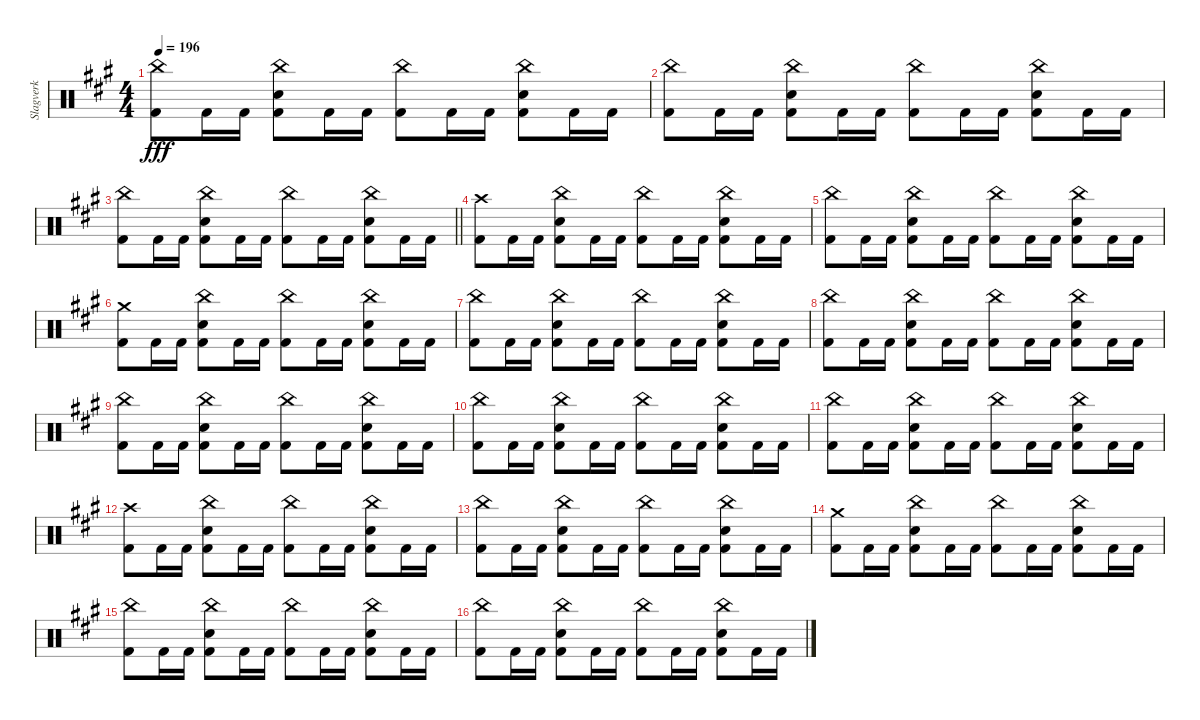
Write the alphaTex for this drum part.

\track ("Slagverk" "Slagverk") {instrument percussion}
\staff {score}
\articulation defaults
\ts (4 4)
\tempo 196
\clef neutral
\ks a
("China (hit)" "Kick (hit) 2").8{dy fff} "Kick (hit) 2".16 "Kick (hit) 2".16 ("China (hit)" "Snare (hit) 2" "Kick (hit) 2").8 "Kick (hit) 2".16 "Kick (hit) 2".16 ("China (hit)" "Kick (hit) 2").8 "Kick (hit) 2".16 "Kick (hit) 2".16 ("China (hit)" "Snare (hit) 2" "Kick (hit) 2").8 "Kick (hit) 2".16 "Kick (hit) 2".16 |
("China (hit)" "Kick (hit) 2").8 "Kick (hit) 2".16 "Kick (hit) 2".16 ("China (hit)" "Snare (hit) 2" "Kick (hit) 2").8 "Kick (hit) 2".16 "Kick (hit) 2".16 ("China (hit)" "Kick (hit) 2").8 "Kick (hit) 2".16 "Kick (hit) 2".16 ("China (hit)" "Snare (hit) 2" "Kick (hit) 2").8 "Kick (hit) 2".16 "Kick (hit) 2".16 |
\barLineRight lightlight
("China (hit)" "Kick (hit) 2").8 "Kick (hit) 2".16 "Kick (hit) 2".16 ("China (hit)" "Snare (hit) 2" "Kick (hit) 2").8 "Kick (hit) 2".16 "Kick (hit) 2".16 ("China (hit)" "Kick (hit) 2").8 "Kick (hit) 2".16 "Kick (hit) 2".16 ("China (hit)" "Snare (hit) 2" "Kick (hit) 2").8 "Kick (hit) 2".16 "Kick (hit) 2".16 |
("Crash high (hit)" "Kick (hit) 2").8 "Kick (hit) 2".16 "Kick (hit) 2".16 ("China (hit)" "Snare (hit) 2" "Kick (hit) 2").8 "Kick (hit) 2".16 "Kick (hit) 2".16 ("China (hit)" "Kick (hit) 2").8 "Kick (hit) 2".16 "Kick (hit) 2".16 ("China (hit)" "Snare (hit) 2" "Kick (hit) 2").8 "Kick (hit) 2".16 "Kick (hit) 2".16 |
("China (hit)" "Kick (hit) 2").8 "Kick (hit) 2".16 "Kick (hit) 2".16 ("China (hit)" "Snare (hit) 2" "Kick (hit) 2").8 "Kick (hit) 2".16 "Kick (hit) 2".16 ("China (hit)" "Kick (hit) 2").8 "Kick (hit) 2".16 "Kick (hit) 2".16 ("China (hit)" "Snare (hit) 2" "Kick (hit) 2").8 "Kick (hit) 2".16 "Kick (hit) 2".16 |
("Crash medium (hit)" "Kick (hit) 2").8 "Kick (hit) 2".16 "Kick (hit) 2".16 ("China (hit)" "Snare (hit) 2" "Kick (hit) 2").8 "Kick (hit) 2".16 "Kick (hit) 2".16 ("China (hit)" "Kick (hit) 2").8 "Kick (hit) 2".16 "Kick (hit) 2".16 ("China (hit)" "Snare (hit) 2" "Kick (hit) 2").8 "Kick (hit) 2".16 "Kick (hit) 2".16 |
("China (hit)" "Kick (hit) 2").8 "Kick (hit) 2".16 "Kick (hit) 2".16 ("China (hit)" "Snare (hit) 2" "Kick (hit) 2").8 "Kick (hit) 2".16 "Kick (hit) 2".16 ("China (hit)" "Kick (hit) 2").8 "Kick (hit) 2".16 "Kick (hit) 2".16 ("China (hit)" "Snare (hit) 2" "Kick (hit) 2").8 "Kick (hit) 2".16 "Kick (hit) 2".16 |
("China (hit)" "Kick (hit) 2").8 "Kick (hit) 2".16 "Kick (hit) 2".16 ("China (hit)" "Snare (hit) 2" "Kick (hit) 2").8 "Kick (hit) 2".16 "Kick (hit) 2".16 ("China (hit)" "Kick (hit) 2").8 "Kick (hit) 2".16 "Kick (hit) 2".16 ("China (hit)" "Snare (hit) 2" "Kick (hit) 2").8 "Kick (hit) 2".16 "Kick (hit) 2".16 |
("China (hit)" "Kick (hit) 2").8 "Kick (hit) 2".16 "Kick (hit) 2".16 ("China (hit)" "Snare (hit) 2" "Kick (hit) 2").8 "Kick (hit) 2".16 "Kick (hit) 2".16 ("China (hit)" "Kick (hit) 2").8 "Kick (hit) 2".16 "Kick (hit) 2".16 ("China (hit)" "Snare (hit) 2" "Kick (hit) 2").8 "Kick (hit) 2".16 "Kick (hit) 2".16 |
("China (hit)" "Kick (hit) 2").8 "Kick (hit) 2".16 "Kick (hit) 2".16 ("China (hit)" "Snare (hit) 2" "Kick (hit) 2").8 "Kick (hit) 2".16 "Kick (hit) 2".16 ("China (hit)" "Kick (hit) 2").8 "Kick (hit) 2".16 "Kick (hit) 2".16 ("China (hit)" "Snare (hit) 2" "Kick (hit) 2").8 "Kick (hit) 2".16 "Kick (hit) 2".16 |
("China (hit)" "Kick (hit) 2").8 "Kick (hit) 2".16 "Kick (hit) 2".16 ("China (hit)" "Snare (hit) 2" "Kick (hit) 2").8 "Kick (hit) 2".16 "Kick (hit) 2".16 ("China (hit)" "Kick (hit) 2").8 "Kick (hit) 2".16 "Kick (hit) 2".16 ("China (hit)" "Snare (hit) 2" "Kick (hit) 2").8 "Kick (hit) 2".16 "Kick (hit) 2".16 |
("Crash high (hit)" "Kick (hit) 2").8 "Kick (hit) 2".16 "Kick (hit) 2".16 ("China (hit)" "Snare (hit) 2" "Kick (hit) 2").8 "Kick (hit) 2".16 "Kick (hit) 2".16 ("China (hit)" "Kick (hit) 2").8 "Kick (hit) 2".16 "Kick (hit) 2".16 ("China (hit)" "Snare (hit) 2" "Kick (hit) 2").8 "Kick (hit) 2".16 "Kick (hit) 2".16 |
("China (hit)" "Kick (hit) 2").8 "Kick (hit) 2".16 "Kick (hit) 2".16 ("China (hit)" "Snare (hit) 2" "Kick (hit) 2").8 "Kick (hit) 2".16 "Kick (hit) 2".16 ("China (hit)" "Kick (hit) 2").8 "Kick (hit) 2".16 "Kick (hit) 2".16 ("China (hit)" "Snare (hit) 2" "Kick (hit) 2").8 "Kick (hit) 2".16 "Kick (hit) 2".16 |
("Crash medium (hit)" "Kick (hit) 2").8 "Kick (hit) 2".16 "Kick (hit) 2".16 ("China (hit)" "Snare (hit) 2" "Kick (hit) 2").8 "Kick (hit) 2".16 "Kick (hit) 2".16 ("China (hit)" "Kick (hit) 2").8 "Kick (hit) 2".16 "Kick (hit) 2".16 ("China (hit)" "Snare (hit) 2" "Kick (hit) 2").8 "Kick (hit) 2".16 "Kick (hit) 2".16 |
("China (hit)" "Kick (hit) 2").8 "Kick (hit) 2".16 "Kick (hit) 2".16 ("China (hit)" "Snare (hit) 2" "Kick (hit) 2").8 "Kick (hit) 2".16 "Kick (hit) 2".16 ("China (hit)" "Kick (hit) 2").8 "Kick (hit) 2".16 "Kick (hit) 2".16 ("China (hit)" "Snare (hit) 2" "Kick (hit) 2").8 "Kick (hit) 2".16 "Kick (hit) 2".16 |
("China (hit)" "Kick (hit) 2").8 "Kick (hit) 2".16 "Kick (hit) 2".16 ("China (hit)" "Snare (hit) 2" "Kick (hit) 2").8 "Kick (hit) 2".16 "Kick (hit) 2".16 ("China (hit)" "Kick (hit) 2").8 "Kick (hit) 2".16 "Kick (hit) 2".16 ("China (hit)" "Snare (hit) 2" "Kick (hit) 2").8 "Kick (hit) 2".16 "Kick (hit) 2".16
